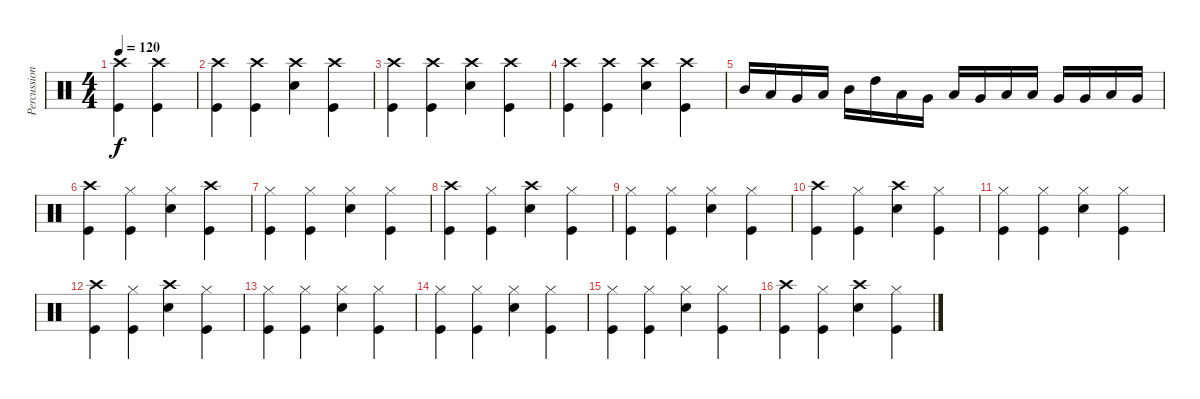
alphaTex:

\track ("Percussion" "Percussion") {instrument percussion}
\staff {score}
\articulation defaults
\ts (4 4)
\tempo 120
\clef neutral
\ks c
("Crash high (hit)" "Kick (hit)").4{dy f} ("Crash high (hit)" "Kick (hit)").4 |
("Crash high (hit)" "Kick (hit)").4 ("Crash high (hit)" "Kick (hit)").4 ("Crash high (hit)" "Snare (hit) 2").4 ("Crash high (hit)" "Kick (hit)").4 |
("Crash high (hit)" "Kick (hit)").4 ("Crash high (hit)" "Kick (hit)").4 ("Crash high (hit)" "Snare (hit) 2").4 ("Crash high (hit)" "Kick (hit)").4 |
("Crash high (hit)" "Kick (hit)").4 ("Crash high (hit)" "Kick (hit)").4 ("Crash high (hit)" "Snare (hit) 2").4 ("Crash high (hit)" "Kick (hit)").4 |
"Mid Tom (hit)".16 "Low Tom (hit)".16 "Very Low Tom (hit)".16 "Low Floor Tom (hit)".16 "Mid Tom (hit)".16 "High Tom (hit)".16 "Low Tom (hit)".16 "Very Low Tom (hit)".16 "Low Floor Tom (hit)".16 "Very Low Tom (hit)".16 "Low Floor Tom (hit)".16 "Low Tom (hit)".16 "Very Low Tom (hit)".16 "Very Low Tom (hit)".16 "Low Tom (hit)".16 "Very Low Tom (hit)".16 |
("Crash high (hit)" "Kick (hit)").4 ("Hi-Hat (closed)" "Kick (hit)").4 ("Hi-Hat (closed)" "Snare (hit) 2").4 ("Crash high (hit)" "Kick (hit)").4 |
("Hi-Hat (closed)" "Kick (hit)").4 ("Hi-Hat (closed)" "Kick (hit)").4 ("Hi-Hat (closed)" "Snare (hit) 2").4 ("Hi-Hat (closed)" "Kick (hit)").4 |
("Crash high (hit)" "Kick (hit)").4 ("Hi-Hat (closed)" "Kick (hit)").4 ("Crash high (hit)" "Snare (hit) 2").4 ("Hi-Hat (closed)" "Kick (hit)").4 |
("Hi-Hat (closed)" "Kick (hit)").4 ("Hi-Hat (closed)" "Kick (hit)").4 ("Hi-Hat (closed)" "Snare (hit) 2").4 ("Hi-Hat (closed)" "Kick (hit)").4 |
("Crash high (hit)" "Kick (hit)").4 ("Hi-Hat (closed)" "Kick (hit)").4 ("Crash high (hit)" "Snare (hit) 2").4 ("Hi-Hat (closed)" "Kick (hit)").4 |
("Hi-Hat (closed)" "Kick (hit)").4 ("Hi-Hat (closed)" "Kick (hit)").4 ("Hi-Hat (closed)" "Snare (hit) 2").4 ("Hi-Hat (closed)" "Kick (hit)").4 |
("Crash high (hit)" "Kick (hit)").4 ("Hi-Hat (closed)" "Kick (hit)").4 ("Crash high (hit)" "Snare (hit) 2").4 ("Hi-Hat (closed)" "Kick (hit)").4 |
("Hi-Hat (closed)" "Kick (hit)").4 ("Hi-Hat (closed)" "Kick (hit)").4 ("Hi-Hat (closed)" "Snare (hit) 2").4 ("Hi-Hat (closed)" "Kick (hit)").4 |
("Hi-Hat (closed)" "Kick (hit)").4 ("Hi-Hat (closed)" "Kick (hit)").4 ("Hi-Hat (closed)" "Snare (hit) 2").4 ("Hi-Hat (closed)" "Kick (hit)").4 |
("Hi-Hat (closed)" "Kick (hit)").4 ("Hi-Hat (closed)" "Kick (hit)").4 ("Hi-Hat (closed)" "Snare (hit) 2").4 ("Hi-Hat (closed)" "Kick (hit)").4 |
("Crash high (hit)" "Kick (hit)").4 ("Hi-Hat (closed)" "Kick (hit)").4 ("Crash high (hit)" "Snare (hit) 2").4 ("Hi-Hat (closed)" "Kick (hit)").4
